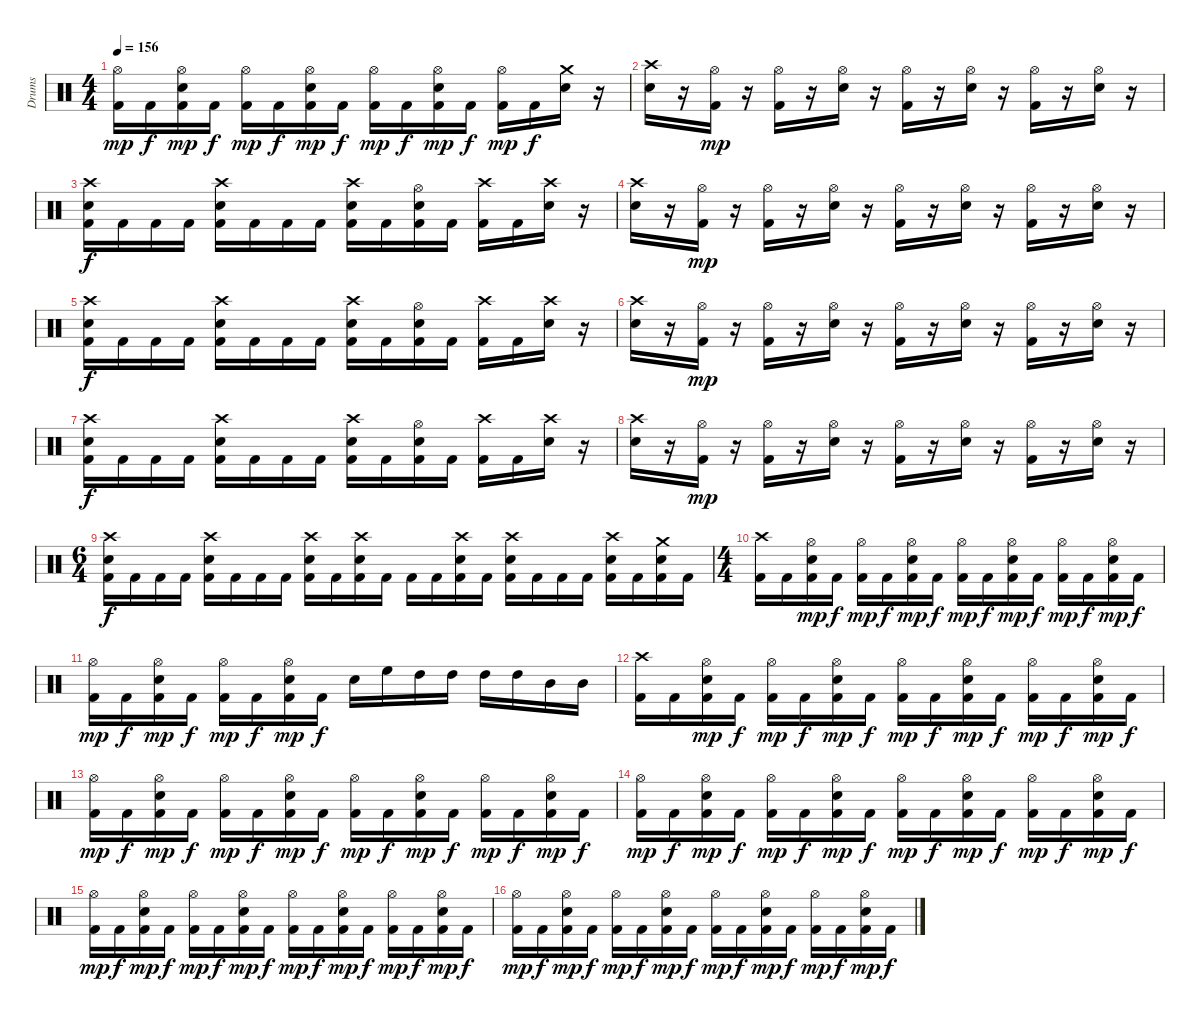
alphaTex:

\track ("Drums" "Drums") {instrument percussion}
\staff {score}
\articulation defaults
\ts (4 4)
\tempo 156
\clef neutral
\ks c
("Kick (hit) 2" "Hi-Hat (open)").16{dy mp} "Kick (hit) 2".16{dy f} ("Snare (hit) 2" "Kick (hit) 2" "Hi-Hat (open)").16{dy mp} "Kick (hit) 2".16{dy f} ("Kick (hit) 2" "Hi-Hat (open)").16{dy mp} "Kick (hit) 2".16{dy f} ("Snare (hit) 2" "Kick (hit) 2" "Hi-Hat (open)").16{dy mp} "Kick (hit) 2".16{dy f} ("Kick (hit) 2" "Hi-Hat (open)").16{dy mp} "Kick (hit) 2".16{dy f} ("Snare (hit) 2" "Kick (hit) 2" "Hi-Hat (open)").16{dy mp} "Kick (hit) 2".16{dy f} ("Kick (hit) 2" "Hi-Hat (open)").16{dy mp} "Kick (hit) 2".16{dy f} ("Snare (hit) 2" "Crash medium (hit)").16 r.16 |
\section ("" "")
("Snare (hit) 2" "Crash high (hit)").16 r.16 ("Kick (hit) 2" "Hi-Hat (open)").16{dy mp} r.16 ("Kick (hit) 2" "Hi-Hat (open)").16 r.16 ("Snare (hit) 2" "Hi-Hat (open)").16 r.16 ("Kick (hit) 2" "Hi-Hat (open)").16 r.16 ("Snare (hit) 2" "Hi-Hat (open)").16 r.16 ("Kick (hit) 2" "Hi-Hat (open)").16 r.16 ("Snare (hit) 2" "Hi-Hat (open)").16 r.16 |
("Crash high (hit)" "Snare (hit) 2" "Kick (hit) 2").16{dy f} "Kick (hit) 2".16 "Kick (hit) 2".16 "Kick (hit) 2".16 ("Crash high (hit)" "Snare (hit) 2" "Kick (hit) 2").16 "Kick (hit) 2".16 "Kick (hit) 2".16 "Kick (hit) 2".16 ("Crash high (hit)" "Snare (hit) 2" "Kick (hit) 2").16 "Kick (hit) 2".16 ("Hi-Hat (open)" "Snare (hit) 2" "Kick (hit) 2").16 "Kick (hit) 2".16 ("Crash high (hit)" "Kick (hit) 2").16 "Kick (hit) 2".16 ("Snare (hit) 2" "Crash high (hit)").16 r.16 |
("Snare (hit) 2" "Crash high (hit)").16 r.16 ("Kick (hit) 2" "Hi-Hat (open)").16{dy mp} r.16 ("Kick (hit) 2" "Hi-Hat (open)").16 r.16 ("Snare (hit) 2" "Hi-Hat (open)").16 r.16 ("Kick (hit) 2" "Hi-Hat (open)").16 r.16 ("Snare (hit) 2" "Hi-Hat (open)").16 r.16 ("Kick (hit) 2" "Hi-Hat (open)").16 r.16 ("Snare (hit) 2" "Hi-Hat (open)").16 r.16 |
("Crash high (hit)" "Snare (hit) 2" "Kick (hit) 2").16{dy f} "Kick (hit) 2".16 "Kick (hit) 2".16 "Kick (hit) 2".16 ("Crash high (hit)" "Snare (hit) 2" "Kick (hit) 2").16 "Kick (hit) 2".16 "Kick (hit) 2".16 "Kick (hit) 2".16 ("Crash high (hit)" "Snare (hit) 2" "Kick (hit) 2").16 "Kick (hit) 2".16 ("Hi-Hat (open)" "Snare (hit) 2" "Kick (hit) 2").16 "Kick (hit) 2".16 ("Crash high (hit)" "Kick (hit) 2").16 "Kick (hit) 2".16 ("Snare (hit) 2" "Crash high (hit)").16 r.16 |
("Snare (hit) 2" "Crash high (hit)").16 r.16 ("Kick (hit) 2" "Hi-Hat (open)").16{dy mp} r.16 ("Kick (hit) 2" "Hi-Hat (open)").16 r.16 ("Snare (hit) 2" "Hi-Hat (open)").16 r.16 ("Kick (hit) 2" "Hi-Hat (open)").16 r.16 ("Snare (hit) 2" "Hi-Hat (open)").16 r.16 ("Kick (hit) 2" "Hi-Hat (open)").16 r.16 ("Snare (hit) 2" "Hi-Hat (open)").16 r.16 |
("Crash high (hit)" "Snare (hit) 2" "Kick (hit) 2").16{dy f} "Kick (hit) 2".16 "Kick (hit) 2".16 "Kick (hit) 2".16 ("Crash high (hit)" "Snare (hit) 2" "Kick (hit) 2").16 "Kick (hit) 2".16 "Kick (hit) 2".16 "Kick (hit) 2".16 ("Crash high (hit)" "Snare (hit) 2" "Kick (hit) 2").16 "Kick (hit) 2".16 ("Hi-Hat (open)" "Snare (hit) 2" "Kick (hit) 2").16 "Kick (hit) 2".16 ("Crash high (hit)" "Kick (hit) 2").16 "Kick (hit) 2".16 ("Snare (hit) 2" "Crash high (hit)").16 r.16 |
("Snare (hit) 2" "Crash high (hit)").16 r.16 ("Kick (hit) 2" "Hi-Hat (open)").16{dy mp} r.16 ("Kick (hit) 2" "Hi-Hat (open)").16 r.16 ("Snare (hit) 2" "Hi-Hat (open)").16 r.16 ("Kick (hit) 2" "Hi-Hat (open)").16 r.16 ("Snare (hit) 2" "Hi-Hat (open)").16 r.16 ("Kick (hit) 2" "Hi-Hat (open)").16 r.16 ("Snare (hit) 2" "Hi-Hat (open)").16 r.16 |
\ts (6 4)
("Kick (hit) 2" "Snare (hit) 2" "Crash high (hit)").16{dy f} "Kick (hit) 2".16 "Kick (hit) 2".16 "Kick (hit) 2".16 ("Kick (hit) 2" "Snare (hit) 2" "Crash high (hit)").16 "Kick (hit) 2".16 "Kick (hit) 2".16 "Kick (hit) 2".16 ("Kick (hit) 2" "Snare (hit) 2" "Crash high (hit)").16 "Kick (hit) 2".16 ("Kick (hit) 2" "Snare (hit) 2" "Crash high (hit)").16 "Kick (hit) 2".16 "Kick (hit) 2".16 "Kick (hit) 2".16 ("Kick (hit) 2" "Snare (hit) 2" "Crash high (hit)").16 "Kick (hit) 2".16 ("Snare (hit) 2" "Kick (hit) 2" "Crash high (hit)").16 "Kick (hit) 2".16 "Kick (hit) 2".16 "Kick (hit) 2".16 ("Snare (hit) 2" "Kick (hit) 2" "Crash high (hit)").16 "Kick (hit) 2".16 ("Snare (hit) 2" "Kick (hit) 2" "Crash medium (hit)").16 "Kick (hit) 2".16 |
\ts (4 4)
("Kick (hit) 2" "Crash high (hit)").16 "Kick (hit) 2".16 ("Snare (hit) 2" "Kick (hit) 2" "Hi-Hat (open)").16{dy mp} "Kick (hit) 2".16{dy f} ("Kick (hit) 2" "Hi-Hat (open)").16{dy mp} "Kick (hit) 2".16{dy f} ("Snare (hit) 2" "Kick (hit) 2" "Hi-Hat (open)").16{dy mp} "Kick (hit) 2".16{dy f} ("Kick (hit) 2" "Hi-Hat (open)").16{dy mp} "Kick (hit) 2".16{dy f} ("Snare (hit) 2" "Kick (hit) 2" "Hi-Hat (open)").16{dy mp} "Kick (hit) 2".16{dy f} ("Kick (hit) 2" "Hi-Hat (open)").16{dy mp} "Kick (hit) 2".16{dy f} ("Snare (hit) 2" "Kick (hit) 2" "Hi-Hat (open)").16{dy mp} "Kick (hit) 2".16{dy f} |
("Kick (hit) 2" "Hi-Hat (open)").16{dy mp} "Kick (hit) 2".16{dy f} ("Snare (hit) 2" "Kick (hit) 2" "Hi-Hat (open)").16{dy mp} "Kick (hit) 2".16{dy f} ("Kick (hit) 2" "Hi-Hat (open)").16{dy mp} "Kick (hit) 2".16{dy f} ("Snare (hit) 2" "Kick (hit) 2" "Hi-Hat (open)").16{dy mp} "Kick (hit) 2".16{dy f} "Snare (hit) 2".16 "High Floor Tom (hit)".16 "High Tom (hit)".16 "High Tom (hit)".16 "High Tom (hit)".16 "High Tom (hit)".16 "Mid Tom (hit)".16 "Mid Tom (hit)".16 |
\section ("" "")
("Kick (hit) 2" "Crash high (hit)").16 "Kick (hit) 2".16 ("Snare (hit) 2" "Kick (hit) 2" "Hi-Hat (open)").16{dy mp} "Kick (hit) 2".16{dy f} ("Kick (hit) 2" "Hi-Hat (open)").16{dy mp} "Kick (hit) 2".16{dy f} ("Snare (hit) 2" "Kick (hit) 2" "Hi-Hat (open)").16{dy mp} "Kick (hit) 2".16{dy f} ("Kick (hit) 2" "Hi-Hat (open)").16{dy mp} "Kick (hit) 2".16{dy f} ("Snare (hit) 2" "Kick (hit) 2" "Hi-Hat (open)").16{dy mp} "Kick (hit) 2".16{dy f} ("Kick (hit) 2" "Hi-Hat (open)").16{dy mp} "Kick (hit) 2".16{dy f} ("Snare (hit) 2" "Kick (hit) 2" "Hi-Hat (open)").16{dy mp} "Kick (hit) 2".16{dy f} |
("Kick (hit) 2" "Hi-Hat (open)").16{dy mp} "Kick (hit) 2".16{dy f} ("Snare (hit) 2" "Kick (hit) 2" "Hi-Hat (open)").16{dy mp} "Kick (hit) 2".16{dy f} ("Kick (hit) 2" "Hi-Hat (open)").16{dy mp} "Kick (hit) 2".16{dy f} ("Snare (hit) 2" "Kick (hit) 2" "Hi-Hat (open)").16{dy mp} "Kick (hit) 2".16{dy f} ("Kick (hit) 2" "Hi-Hat (open)").16{dy mp} "Kick (hit) 2".16{dy f} ("Snare (hit) 2" "Kick (hit) 2" "Hi-Hat (open)").16{dy mp} "Kick (hit) 2".16{dy f} ("Kick (hit) 2" "Hi-Hat (open)").16{dy mp} "Kick (hit) 2".16{dy f} ("Snare (hit) 2" "Kick (hit) 2" "Hi-Hat (open)").16{dy mp} "Kick (hit) 2".16{dy f} |
("Kick (hit) 2" "Hi-Hat (open)").16{dy mp} "Kick (hit) 2".16{dy f} ("Snare (hit) 2" "Kick (hit) 2" "Hi-Hat (open)").16{dy mp} "Kick (hit) 2".16{dy f} ("Kick (hit) 2" "Hi-Hat (open)").16{dy mp} "Kick (hit) 2".16{dy f} ("Snare (hit) 2" "Kick (hit) 2" "Hi-Hat (open)").16{dy mp} "Kick (hit) 2".16{dy f} ("Kick (hit) 2" "Hi-Hat (open)").16{dy mp} "Kick (hit) 2".16{dy f} ("Snare (hit) 2" "Kick (hit) 2" "Hi-Hat (open)").16{dy mp} "Kick (hit) 2".16{dy f} ("Kick (hit) 2" "Hi-Hat (open)").16{dy mp} "Kick (hit) 2".16{dy f} ("Snare (hit) 2" "Kick (hit) 2" "Hi-Hat (open)").16{dy mp} "Kick (hit) 2".16{dy f} |
("Kick (hit) 2" "Hi-Hat (open)").16{dy mp} "Kick (hit) 2".16{dy f} ("Snare (hit) 2" "Kick (hit) 2" "Hi-Hat (open)").16{dy mp} "Kick (hit) 2".16{dy f} ("Kick (hit) 2" "Hi-Hat (open)").16{dy mp} "Kick (hit) 2".16{dy f} ("Snare (hit) 2" "Kick (hit) 2" "Hi-Hat (open)").16{dy mp} "Kick (hit) 2".16{dy f} ("Kick (hit) 2" "Hi-Hat (open)").16{dy mp} "Kick (hit) 2".16{dy f} ("Snare (hit) 2" "Kick (hit) 2" "Hi-Hat (open)").16{dy mp} "Kick (hit) 2".16{dy f} ("Kick (hit) 2" "Hi-Hat (open)").16{dy mp} "Kick (hit) 2".16{dy f} ("Snare (hit) 2" "Kick (hit) 2" "Hi-Hat (open)").16{dy mp} "Kick (hit) 2".16{dy f} |
("Kick (hit) 2" "Hi-Hat (open)").16{dy mp} "Kick (hit) 2".16{dy f} ("Snare (hit) 2" "Kick (hit) 2" "Hi-Hat (open)").16{dy mp} "Kick (hit) 2".16{dy f} ("Kick (hit) 2" "Hi-Hat (open)").16{dy mp} "Kick (hit) 2".16{dy f} ("Snare (hit) 2" "Kick (hit) 2" "Hi-Hat (open)").16{dy mp} "Kick (hit) 2".16{dy f} ("Kick (hit) 2" "Hi-Hat (open)").16{dy mp} "Kick (hit) 2".16{dy f} ("Snare (hit) 2" "Kick (hit) 2" "Hi-Hat (open)").16{dy mp} "Kick (hit) 2".16{dy f} ("Kick (hit) 2" "Hi-Hat (open)").16{dy mp} "Kick (hit) 2".16{dy f} ("Snare (hit) 2" "Kick (hit) 2" "Hi-Hat (open)").16{dy mp} "Kick (hit) 2".16{dy f}
